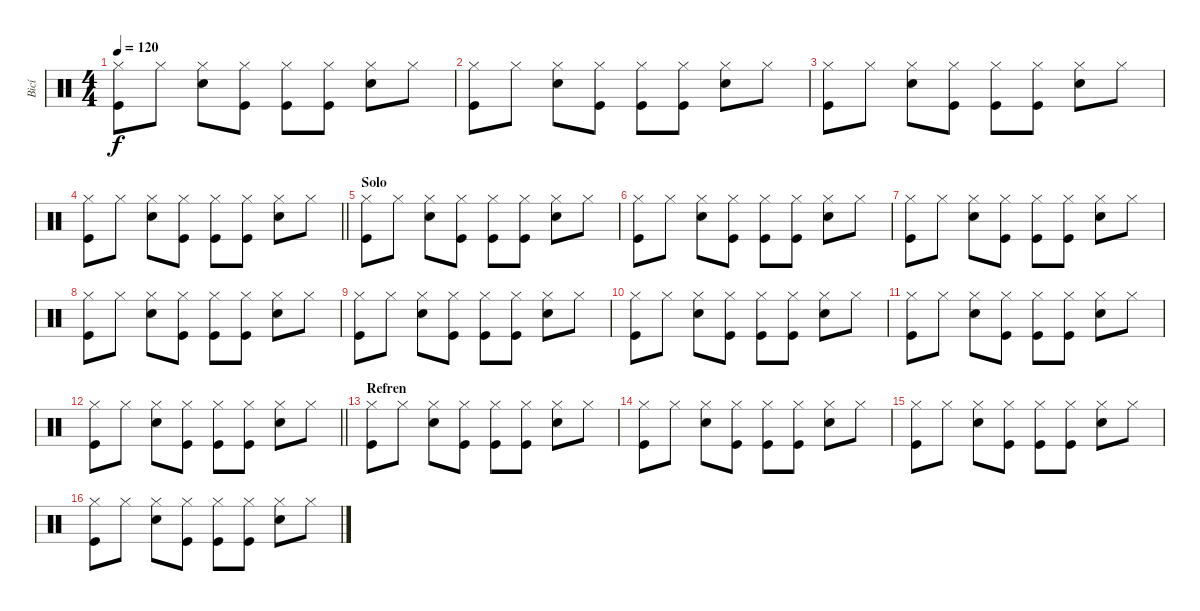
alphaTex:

\track ("Bicí" "Bicí") {instrument percussion}
\staff {score}
\articulation defaults
\ts (4 4)
\tempo 120
\clef neutral
\ks c
("Hi-Hat (closed)" "Kick (hit)").8{dy f} "Hi-Hat (closed)".8 ("Hi-Hat (closed)" "Snare (hit) 2").8 ("Hi-Hat (closed)" "Kick (hit)").8 ("Hi-Hat (closed)" "Kick (hit)").8 ("Hi-Hat (closed)" "Kick (hit)").8 ("Hi-Hat (closed)" "Snare (hit) 2").8 "Hi-Hat (closed)".8 |
("Hi-Hat (closed)" "Kick (hit)").8 "Hi-Hat (closed)".8 ("Hi-Hat (closed)" "Snare (hit) 2").8 ("Hi-Hat (closed)" "Kick (hit)").8 ("Hi-Hat (closed)" "Kick (hit)").8 ("Hi-Hat (closed)" "Kick (hit)").8 ("Hi-Hat (closed)" "Snare (hit) 2").8 "Hi-Hat (closed)".8 |
("Hi-Hat (closed)" "Kick (hit)").8 "Hi-Hat (closed)".8 ("Hi-Hat (closed)" "Snare (hit) 2").8 ("Hi-Hat (closed)" "Kick (hit)").8 ("Hi-Hat (closed)" "Kick (hit)").8 ("Hi-Hat (closed)" "Kick (hit)").8 ("Hi-Hat (closed)" "Snare (hit) 2").8 "Hi-Hat (closed)".8 |
\barLineRight lightlight
("Hi-Hat (closed)" "Kick (hit)").8 "Hi-Hat (closed)".8 ("Hi-Hat (closed)" "Snare (hit) 2").8 ("Hi-Hat (closed)" "Kick (hit)").8 ("Hi-Hat (closed)" "Kick (hit)").8 ("Hi-Hat (closed)" "Kick (hit)").8 ("Hi-Hat (closed)" "Snare (hit) 2").8 "Hi-Hat (closed)".8 |
\section ("" "Solo")
("Hi-Hat (closed)" "Kick (hit)").8 "Hi-Hat (closed)".8 ("Hi-Hat (closed)" "Snare (hit) 2").8 ("Hi-Hat (closed)" "Kick (hit)").8 ("Hi-Hat (closed)" "Kick (hit)").8 ("Hi-Hat (closed)" "Kick (hit)").8 ("Hi-Hat (closed)" "Snare (hit) 2").8 "Hi-Hat (closed)".8 |
("Hi-Hat (closed)" "Kick (hit)").8 "Hi-Hat (closed)".8 ("Hi-Hat (closed)" "Snare (hit) 2").8 ("Hi-Hat (closed)" "Kick (hit)").8 ("Hi-Hat (closed)" "Kick (hit)").8 ("Hi-Hat (closed)" "Kick (hit)").8 ("Hi-Hat (closed)" "Snare (hit) 2").8 "Hi-Hat (closed)".8 |
("Hi-Hat (closed)" "Kick (hit)").8 "Hi-Hat (closed)".8 ("Hi-Hat (closed)" "Snare (hit) 2").8 ("Hi-Hat (closed)" "Kick (hit)").8 ("Hi-Hat (closed)" "Kick (hit)").8 ("Hi-Hat (closed)" "Kick (hit)").8 ("Hi-Hat (closed)" "Snare (hit) 2").8 "Hi-Hat (closed)".8 |
("Hi-Hat (closed)" "Kick (hit)").8 "Hi-Hat (closed)".8 ("Hi-Hat (closed)" "Snare (hit) 2").8 ("Hi-Hat (closed)" "Kick (hit)").8 ("Hi-Hat (closed)" "Kick (hit)").8 ("Hi-Hat (closed)" "Kick (hit)").8 ("Hi-Hat (closed)" "Snare (hit) 2").8 "Hi-Hat (closed)".8 |
("Hi-Hat (closed)" "Kick (hit)").8 "Hi-Hat (closed)".8 ("Hi-Hat (closed)" "Snare (hit) 2").8 ("Hi-Hat (closed)" "Kick (hit)").8 ("Hi-Hat (closed)" "Kick (hit)").8 ("Hi-Hat (closed)" "Kick (hit)").8 ("Hi-Hat (closed)" "Snare (hit) 2").8 "Hi-Hat (closed)".8 |
("Hi-Hat (closed)" "Kick (hit)").8 "Hi-Hat (closed)".8 ("Hi-Hat (closed)" "Snare (hit) 2").8 ("Hi-Hat (closed)" "Kick (hit)").8 ("Hi-Hat (closed)" "Kick (hit)").8 ("Hi-Hat (closed)" "Kick (hit)").8 ("Hi-Hat (closed)" "Snare (hit) 2").8 "Hi-Hat (closed)".8 |
("Hi-Hat (closed)" "Kick (hit)").8 "Hi-Hat (closed)".8 ("Hi-Hat (closed)" "Snare (hit) 2").8 ("Hi-Hat (closed)" "Kick (hit)").8 ("Hi-Hat (closed)" "Kick (hit)").8 ("Hi-Hat (closed)" "Kick (hit)").8 ("Hi-Hat (closed)" "Snare (hit) 2").8 "Hi-Hat (closed)".8 |
\barLineRight lightlight
("Hi-Hat (closed)" "Kick (hit)").8 "Hi-Hat (closed)".8 ("Hi-Hat (closed)" "Snare (hit) 2").8 ("Hi-Hat (closed)" "Kick (hit)").8 ("Hi-Hat (closed)" "Kick (hit)").8 ("Hi-Hat (closed)" "Kick (hit)").8 ("Hi-Hat (closed)" "Snare (hit) 2").8 "Hi-Hat (closed)".8 |
\section ("" "Refren")
("Hi-Hat (closed)" "Kick (hit)").8 "Hi-Hat (closed)".8 ("Hi-Hat (closed)" "Snare (hit) 2").8 ("Hi-Hat (closed)" "Kick (hit)").8 ("Hi-Hat (closed)" "Kick (hit)").8 ("Hi-Hat (closed)" "Kick (hit)").8 ("Hi-Hat (closed)" "Snare (hit) 2").8 "Hi-Hat (closed)".8 |
("Hi-Hat (closed)" "Kick (hit)").8 "Hi-Hat (closed)".8 ("Hi-Hat (closed)" "Snare (hit) 2").8 ("Hi-Hat (closed)" "Kick (hit)").8 ("Hi-Hat (closed)" "Kick (hit)").8 ("Hi-Hat (closed)" "Kick (hit)").8 ("Hi-Hat (closed)" "Snare (hit) 2").8 "Hi-Hat (closed)".8 |
("Hi-Hat (closed)" "Kick (hit)").8 "Hi-Hat (closed)".8 ("Hi-Hat (closed)" "Snare (hit) 2").8 ("Hi-Hat (closed)" "Kick (hit)").8 ("Hi-Hat (closed)" "Kick (hit)").8 ("Hi-Hat (closed)" "Kick (hit)").8 ("Hi-Hat (closed)" "Snare (hit) 2").8 "Hi-Hat (closed)".8 |
("Hi-Hat (closed)" "Kick (hit)").8 "Hi-Hat (closed)".8 ("Hi-Hat (closed)" "Snare (hit) 2").8 ("Hi-Hat (closed)" "Kick (hit)").8 ("Hi-Hat (closed)" "Kick (hit)").8 ("Hi-Hat (closed)" "Kick (hit)").8 ("Hi-Hat (closed)" "Snare (hit) 2").8 "Hi-Hat (closed)".8
